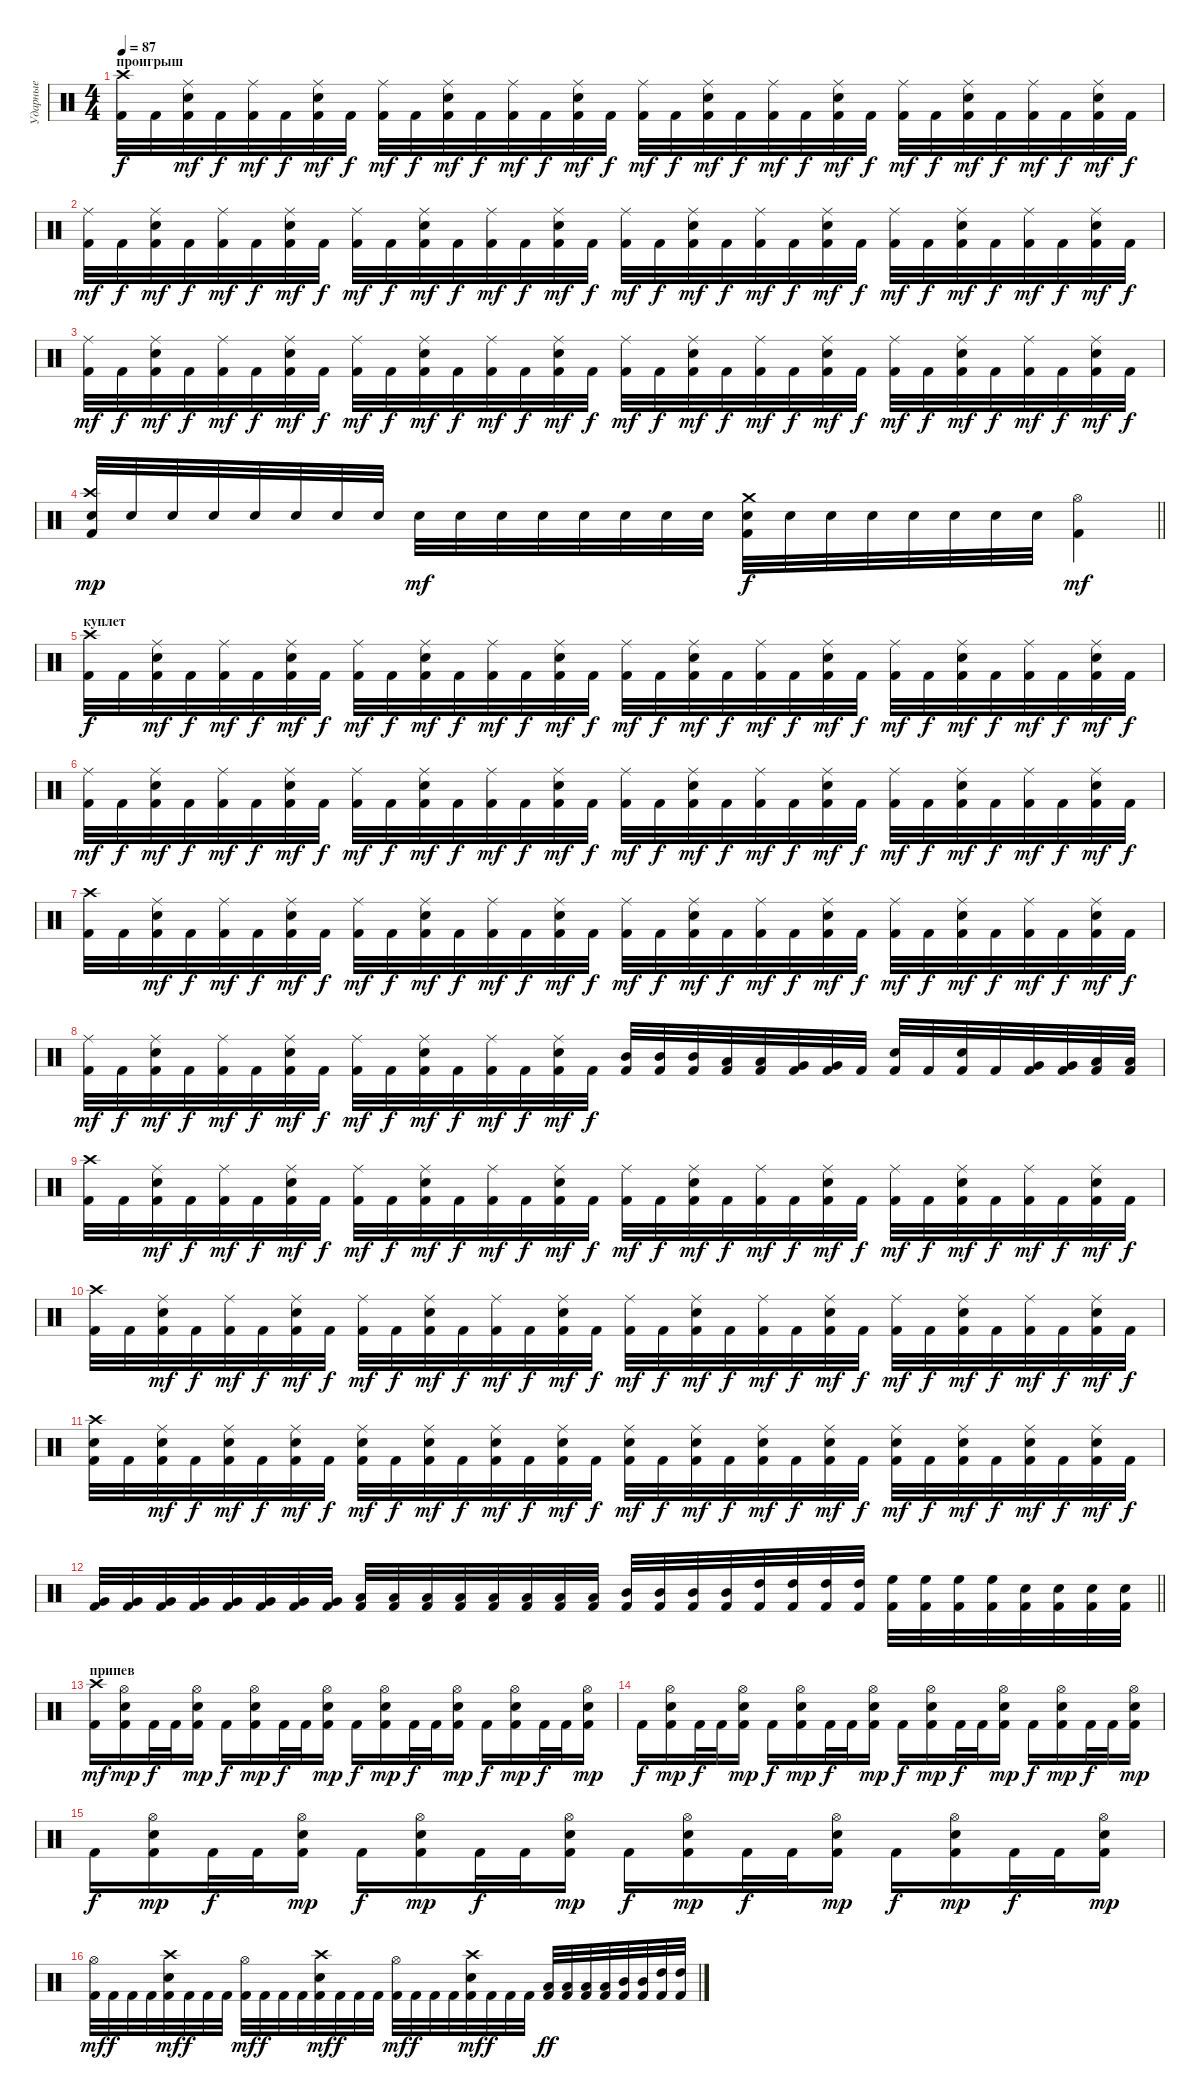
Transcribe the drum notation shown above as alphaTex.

\track ("Ударные" "Ударные") {instrument percussion}
\staff {score}
\articulation defaults
\ts (4 4)
\section ("" "проигрыш")
\tempo 87
\clef neutral
\ks c
("Kick (hit) 2" "Crash high (hit)").32{dy f} "Kick (hit) 2".32 ("Kick (hit) 2" "Electric Snare (hit)" "Ride (middle)").32{dy mf} "Kick (hit) 2".32{dy f} ("Kick (hit) 2" "Ride (middle)").32{dy mf} "Kick (hit) 2".32{dy f} ("Kick (hit) 2" "Electric Snare (hit)" "Ride (middle)").32{dy mf} "Kick (hit) 2".32{dy f} ("Kick (hit) 2" "Ride (middle)").32{dy mf} "Kick (hit) 2".32{dy f} ("Kick (hit) 2" "Electric Snare (hit)" "Ride (middle)").32{dy mf} "Kick (hit) 2".32{dy f} ("Kick (hit) 2" "Ride (middle)").32{dy mf} "Kick (hit) 2".32{dy f} ("Kick (hit) 2" "Electric Snare (hit)" "Ride (middle)").32{dy mf} "Kick (hit) 2".32{dy f} ("Kick (hit) 2" "Ride (middle)").32{dy mf} "Kick (hit) 2".32{dy f} ("Kick (hit) 2" "Electric Snare (hit)" "Ride (middle)").32{dy mf} "Kick (hit) 2".32{dy f} ("Kick (hit) 2" "Ride (middle)").32{dy mf} "Kick (hit) 2".32{dy f} ("Kick (hit) 2" "Electric Snare (hit)" "Ride (middle)").32{dy mf} "Kick (hit) 2".32{dy f} ("Kick (hit) 2" "Ride (middle)").32{dy mf} "Kick (hit) 2".32{dy f} ("Kick (hit) 2" "Electric Snare (hit)" "Ride (middle)").32{dy mf} "Kick (hit) 2".32{dy f} ("Kick (hit) 2" "Ride (middle)").32{dy mf} "Kick (hit) 2".32{dy f} ("Kick (hit) 2" "Electric Snare (hit)" "Ride (middle)").32{dy mf} "Kick (hit) 2".32{dy f} |
("Kick (hit) 2" "Ride (middle)").32{dy mf} "Kick (hit) 2".32{dy f} ("Kick (hit) 2" "Electric Snare (hit)" "Ride (middle)").32{dy mf} "Kick (hit) 2".32{dy f} ("Kick (hit) 2" "Ride (middle)").32{dy mf} "Kick (hit) 2".32{dy f} ("Kick (hit) 2" "Electric Snare (hit)" "Ride (middle)").32{dy mf} "Kick (hit) 2".32{dy f} ("Kick (hit) 2" "Ride (middle)").32{dy mf} "Kick (hit) 2".32{dy f} ("Kick (hit) 2" "Electric Snare (hit)" "Ride (middle)").32{dy mf} "Kick (hit) 2".32{dy f} ("Kick (hit) 2" "Ride (middle)").32{dy mf} "Kick (hit) 2".32{dy f} ("Kick (hit) 2" "Electric Snare (hit)" "Ride (middle)").32{dy mf} "Kick (hit) 2".32{dy f} ("Kick (hit) 2" "Ride (middle)").32{dy mf} "Kick (hit) 2".32{dy f} ("Kick (hit) 2" "Electric Snare (hit)" "Ride (middle)").32{dy mf} "Kick (hit) 2".32{dy f} ("Kick (hit) 2" "Ride (middle)").32{dy mf} "Kick (hit) 2".32{dy f} ("Kick (hit) 2" "Electric Snare (hit)" "Ride (middle)").32{dy mf} "Kick (hit) 2".32{dy f} ("Kick (hit) 2" "Ride (middle)").32{dy mf} "Kick (hit) 2".32{dy f} ("Kick (hit) 2" "Electric Snare (hit)" "Ride (middle)").32{dy mf} "Kick (hit) 2".32{dy f} ("Kick (hit) 2" "Ride (middle)").32{dy mf} "Kick (hit) 2".32{dy f} ("Kick (hit) 2" "Electric Snare (hit)" "Ride (middle)").32{dy mf} "Kick (hit) 2".32{dy f} |
("Kick (hit) 2" "Ride (middle)").32{dy mf} "Kick (hit) 2".32{dy f} ("Kick (hit) 2" "Electric Snare (hit)" "Ride (middle)").32{dy mf} "Kick (hit) 2".32{dy f} ("Kick (hit) 2" "Ride (middle)").32{dy mf} "Kick (hit) 2".32{dy f} ("Kick (hit) 2" "Electric Snare (hit)" "Ride (middle)").32{dy mf} "Kick (hit) 2".32{dy f} ("Kick (hit) 2" "Ride (middle)").32{dy mf} "Kick (hit) 2".32{dy f} ("Kick (hit) 2" "Electric Snare (hit)" "Ride (middle)").32{dy mf} "Kick (hit) 2".32{dy f} ("Kick (hit) 2" "Ride (middle)").32{dy mf} "Kick (hit) 2".32{dy f} ("Kick (hit) 2" "Electric Snare (hit)" "Ride (middle)").32{dy mf} "Kick (hit) 2".32{dy f} ("Kick (hit) 2" "Ride (middle)").32{dy mf} "Kick (hit) 2".32{dy f} ("Kick (hit) 2" "Electric Snare (hit)" "Ride (middle)").32{dy mf} "Kick (hit) 2".32{dy f} ("Kick (hit) 2" "Ride (middle)").32{dy mf} "Kick (hit) 2".32{dy f} ("Kick (hit) 2" "Electric Snare (hit)" "Ride (middle)").32{dy mf} "Kick (hit) 2".32{dy f} ("Kick (hit) 2" "Ride (middle)").32{dy mf} "Kick (hit) 2".32{dy f} ("Kick (hit) 2" "Electric Snare (hit)" "Ride (middle)").32{dy mf} "Kick (hit) 2".32{dy f} ("Kick (hit) 2" "Ride (middle)").32{dy mf} "Kick (hit) 2".32{dy f} ("Kick (hit) 2" "Electric Snare (hit)" "Ride (middle)").32{dy mf} "Kick (hit) 2".32{dy f} |
\barLineRight lightlight
("Kick (hit) 2" "Electric Snare (hit)" "Crash high (hit)").32{dy mp} "Electric Snare (hit)".32 "Electric Snare (hit)".32 "Electric Snare (hit)".32 "Electric Snare (hit)".32 "Electric Snare (hit)".32 "Electric Snare (hit)".32 "Electric Snare (hit)".32 "Electric Snare (hit)".32{dy mf} "Electric Snare (hit)".32 "Electric Snare (hit)".32 "Electric Snare (hit)".32 "Electric Snare (hit)".32 "Electric Snare (hit)".32 "Electric Snare (hit)".32 "Electric Snare (hit)".32 ("Kick (hit) 2" "Electric Snare (hit)" "Crash medium (hit)").32{dy f} "Electric Snare (hit)".32 "Electric Snare (hit)".32 "Electric Snare (hit)".32 "Electric Snare (hit)".32 "Electric Snare (hit)".32 "Electric Snare (hit)".32 "Electric Snare (hit)".32 ("Kick (hit) 2" "Hi-Hat (open)").4{dy mf} |
\section ("" "куплет")
("Kick (hit) 2" "Crash high (hit)").32{dy f} "Kick (hit) 2".32 ("Kick (hit) 2" "Electric Snare (hit)" "Ride (middle)").32{dy mf} "Kick (hit) 2".32{dy f} ("Kick (hit) 2" "Ride (middle)").32{dy mf} "Kick (hit) 2".32{dy f} ("Kick (hit) 2" "Electric Snare (hit)" "Ride (middle)").32{dy mf} "Kick (hit) 2".32{dy f} ("Kick (hit) 2" "Ride (middle)").32{dy mf} "Kick (hit) 2".32{dy f} ("Kick (hit) 2" "Electric Snare (hit)" "Ride (middle)").32{dy mf} "Kick (hit) 2".32{dy f} ("Kick (hit) 2" "Ride (middle)").32{dy mf} "Kick (hit) 2".32{dy f} ("Kick (hit) 2" "Electric Snare (hit)" "Ride (middle)").32{dy mf} "Kick (hit) 2".32{dy f} ("Kick (hit) 2" "Ride (middle)").32{dy mf} "Kick (hit) 2".32{dy f} ("Kick (hit) 2" "Electric Snare (hit)" "Ride (middle)").32{dy mf} "Kick (hit) 2".32{dy f} ("Kick (hit) 2" "Ride (middle)").32{dy mf} "Kick (hit) 2".32{dy f} ("Kick (hit) 2" "Electric Snare (hit)" "Ride (middle)").32{dy mf} "Kick (hit) 2".32{dy f} ("Kick (hit) 2" "Ride (middle)").32{dy mf} "Kick (hit) 2".32{dy f} ("Kick (hit) 2" "Electric Snare (hit)" "Ride (middle)").32{dy mf} "Kick (hit) 2".32{dy f} ("Kick (hit) 2" "Ride (middle)").32{dy mf} "Kick (hit) 2".32{dy f} ("Kick (hit) 2" "Electric Snare (hit)" "Ride (middle)").32{dy mf} "Kick (hit) 2".32{dy f} |
("Kick (hit) 2" "Ride (middle)").32{dy mf} "Kick (hit) 2".32{dy f} ("Kick (hit) 2" "Electric Snare (hit)" "Ride (middle)").32{dy mf} "Kick (hit) 2".32{dy f} ("Kick (hit) 2" "Ride (middle)").32{dy mf} "Kick (hit) 2".32{dy f} ("Kick (hit) 2" "Electric Snare (hit)" "Ride (middle)").32{dy mf} "Kick (hit) 2".32{dy f} ("Kick (hit) 2" "Ride (middle)").32{dy mf} "Kick (hit) 2".32{dy f} ("Kick (hit) 2" "Electric Snare (hit)" "Ride (middle)").32{dy mf} "Kick (hit) 2".32{dy f} ("Kick (hit) 2" "Ride (middle)").32{dy mf} "Kick (hit) 2".32{dy f} ("Kick (hit) 2" "Electric Snare (hit)" "Ride (middle)").32{dy mf} "Kick (hit) 2".32{dy f} ("Kick (hit) 2" "Ride (middle)").32{dy mf} "Kick (hit) 2".32{dy f} ("Kick (hit) 2" "Electric Snare (hit)" "Ride (middle)").32{dy mf} "Kick (hit) 2".32{dy f} ("Kick (hit) 2" "Ride (middle)").32{dy mf} "Kick (hit) 2".32{dy f} ("Kick (hit) 2" "Electric Snare (hit)" "Ride (middle)").32{dy mf} "Kick (hit) 2".32{dy f} ("Kick (hit) 2" "Ride (middle)").32{dy mf} "Kick (hit) 2".32{dy f} ("Kick (hit) 2" "Electric Snare (hit)" "Ride (middle)").32{dy mf} "Kick (hit) 2".32{dy f} ("Kick (hit) 2" "Ride (middle)").32{dy mf} "Kick (hit) 2".32{dy f} ("Kick (hit) 2" "Electric Snare (hit)" "Ride (middle)").32{dy mf} "Kick (hit) 2".32{dy f} |
("Kick (hit) 2" "Crash high (hit)").32 "Kick (hit) 2".32 ("Kick (hit) 2" "Electric Snare (hit)" "Ride (middle)").32{dy mf} "Kick (hit) 2".32{dy f} ("Kick (hit) 2" "Ride (middle)").32{dy mf} "Kick (hit) 2".32{dy f} ("Kick (hit) 2" "Electric Snare (hit)" "Ride (middle)").32{dy mf} "Kick (hit) 2".32{dy f} ("Kick (hit) 2" "Ride (middle)").32{dy mf} "Kick (hit) 2".32{dy f} ("Kick (hit) 2" "Electric Snare (hit)" "Ride (middle)").32{dy mf} "Kick (hit) 2".32{dy f} ("Kick (hit) 2" "Ride (middle)").32{dy mf} "Kick (hit) 2".32{dy f} ("Kick (hit) 2" "Electric Snare (hit)" "Ride (middle)").32{dy mf} "Kick (hit) 2".32{dy f} ("Kick (hit) 2" "Ride (middle)").32{dy mf} "Kick (hit) 2".32{dy f} ("Kick (hit) 2" "Electric Snare (hit)" "Ride (middle)").32{dy mf} "Kick (hit) 2".32{dy f} ("Kick (hit) 2" "Ride (middle)").32{dy mf} "Kick (hit) 2".32{dy f} ("Kick (hit) 2" "Electric Snare (hit)" "Ride (middle)").32{dy mf} "Kick (hit) 2".32{dy f} ("Kick (hit) 2" "Ride (middle)").32{dy mf} "Kick (hit) 2".32{dy f} ("Kick (hit) 2" "Electric Snare (hit)" "Ride (middle)").32{dy mf} "Kick (hit) 2".32{dy f} ("Kick (hit) 2" "Ride (middle)").32{dy mf} "Kick (hit) 2".32{dy f} ("Kick (hit) 2" "Electric Snare (hit)" "Ride (middle)").32{dy mf} "Kick (hit) 2".32{dy f} |
("Kick (hit) 2" "Ride (middle)").32{dy mf} "Kick (hit) 2".32{dy f} ("Kick (hit) 2" "Electric Snare (hit)" "Ride (middle)").32{dy mf} "Kick (hit) 2".32{dy f} ("Kick (hit) 2" "Ride (middle)").32{dy mf} "Kick (hit) 2".32{dy f} ("Kick (hit) 2" "Electric Snare (hit)" "Ride (middle)").32{dy mf} "Kick (hit) 2".32{dy f} ("Kick (hit) 2" "Ride (middle)").32{dy mf} "Kick (hit) 2".32{dy f} ("Kick (hit) 2" "Electric Snare (hit)" "Ride (middle)").32{dy mf} "Kick (hit) 2".32{dy f} ("Kick (hit) 2" "Ride (middle)").32{dy mf} "Kick (hit) 2".32{dy f} ("Kick (hit) 2" "Electric Snare (hit)" "Ride (middle)").32{dy mf} "Kick (hit) 2".32{dy f} ("Kick (hit) 2" "Mid Tom (hit)").32 ("Kick (hit) 2" "Mid Tom (hit)").32 ("Kick (hit) 2" "Mid Tom (hit)").32 ("Kick (hit) 2" "Low Tom (hit)").32 ("Kick (hit) 2" "Low Tom (hit)").32 ("Kick (hit) 2" "Very Low Tom (hit)").32 ("Kick (hit) 2" "Very Low Tom (hit)").32 "Kick (hit) 2".32 ("Kick (hit) 2" "Electric Snare (hit)").32 "Kick (hit) 2".32 ("Kick (hit) 2" "Electric Snare (hit)").32 "Kick (hit) 2".32 ("Kick (hit) 2" "Very Low Tom (hit)").32 ("Kick (hit) 2" "Very Low Tom (hit)").32 ("Kick (hit) 2" "Low Floor Tom (hit)").32 ("Kick (hit) 2" "Low Floor Tom (hit)").32 |
("Kick (hit) 2" "Crash high (hit)").32 "Kick (hit) 2".32 ("Kick (hit) 2" "Electric Snare (hit)" "Ride (middle)").32{dy mf} "Kick (hit) 2".32{dy f} ("Kick (hit) 2" "Ride (middle)").32{dy mf} "Kick (hit) 2".32{dy f} ("Kick (hit) 2" "Electric Snare (hit)" "Ride (middle)").32{dy mf} "Kick (hit) 2".32{dy f} ("Kick (hit) 2" "Ride (middle)").32{dy mf} "Kick (hit) 2".32{dy f} ("Kick (hit) 2" "Electric Snare (hit)" "Ride (middle)").32{dy mf} "Kick (hit) 2".32{dy f} ("Kick (hit) 2" "Ride (middle)").32{dy mf} "Kick (hit) 2".32{dy f} ("Kick (hit) 2" "Electric Snare (hit)" "Ride (middle)").32{dy mf} "Kick (hit) 2".32{dy f} ("Kick (hit) 2" "Ride (middle)").32{dy mf} "Kick (hit) 2".32{dy f} ("Kick (hit) 2" "Electric Snare (hit)" "Ride (middle)").32{dy mf} "Kick (hit) 2".32{dy f} ("Kick (hit) 2" "Ride (middle)").32{dy mf} "Kick (hit) 2".32{dy f} ("Kick (hit) 2" "Electric Snare (hit)" "Ride (middle)").32{dy mf} "Kick (hit) 2".32{dy f} ("Kick (hit) 2" "Ride (middle)").32{dy mf} "Kick (hit) 2".32{dy f} ("Kick (hit) 2" "Electric Snare (hit)" "Ride (middle)").32{dy mf} "Kick (hit) 2".32{dy f} ("Kick (hit) 2" "Ride (middle)").32{dy mf} "Kick (hit) 2".32{dy f} ("Kick (hit) 2" "Electric Snare (hit)" "Ride (middle)").32{dy mf} "Kick (hit) 2".32{dy f} |
("Kick (hit) 2" "Crash high (hit)").32 "Kick (hit) 2".32 ("Kick (hit) 2" "Electric Snare (hit)" "Ride (middle)").32{dy mf} "Kick (hit) 2".32{dy f} ("Kick (hit) 2" "Ride (middle)").32{dy mf} "Kick (hit) 2".32{dy f} ("Kick (hit) 2" "Electric Snare (hit)" "Ride (middle)").32{dy mf} "Kick (hit) 2".32{dy f} ("Kick (hit) 2" "Ride (middle)").32{dy mf} "Kick (hit) 2".32{dy f} ("Kick (hit) 2" "Electric Snare (hit)" "Ride (middle)").32{dy mf} "Kick (hit) 2".32{dy f} ("Kick (hit) 2" "Ride (middle)").32{dy mf} "Kick (hit) 2".32{dy f} ("Kick (hit) 2" "Electric Snare (hit)" "Ride (middle)").32{dy mf} "Kick (hit) 2".32{dy f} ("Kick (hit) 2" "Ride (middle)").32{dy mf} "Kick (hit) 2".32{dy f} ("Kick (hit) 2" "Electric Snare (hit)" "Ride (middle)").32{dy mf} "Kick (hit) 2".32{dy f} ("Kick (hit) 2" "Ride (middle)").32{dy mf} "Kick (hit) 2".32{dy f} ("Kick (hit) 2" "Electric Snare (hit)" "Ride (middle)").32{dy mf} "Kick (hit) 2".32{dy f} ("Kick (hit) 2" "Ride (middle)").32{dy mf} "Kick (hit) 2".32{dy f} ("Kick (hit) 2" "Electric Snare (hit)" "Ride (middle)").32{dy mf} "Kick (hit) 2".32{dy f} ("Kick (hit) 2" "Ride (middle)").32{dy mf} "Kick (hit) 2".32{dy f} ("Kick (hit) 2" "Electric Snare (hit)" "Ride (middle)").32{dy mf} "Kick (hit) 2".32{dy f} |
("Kick (hit) 2" "Electric Snare (hit)" "Crash high (hit)").32 "Kick (hit) 2".32 ("Kick (hit) 2" "Electric Snare (hit)" "Ride (middle)").32{dy mf} "Kick (hit) 2".32{dy f} ("Kick (hit) 2" "Electric Snare (hit)" "Ride (middle)").32{dy mf} "Kick (hit) 2".32{dy f} ("Kick (hit) 2" "Electric Snare (hit)" "Ride (middle)").32{dy mf} "Kick (hit) 2".32{dy f} ("Kick (hit) 2" "Electric Snare (hit)" "Ride (middle)").32{dy mf} "Kick (hit) 2".32{dy f} ("Kick (hit) 2" "Electric Snare (hit)" "Ride (middle)").32{dy mf} "Kick (hit) 2".32{dy f} ("Kick (hit) 2" "Electric Snare (hit)" "Ride (middle)").32{dy mf} "Kick (hit) 2".32{dy f} ("Kick (hit) 2" "Electric Snare (hit)" "Ride (middle)").32{dy mf} "Kick (hit) 2".32{dy f} ("Kick (hit) 2" "Electric Snare (hit)" "Ride (middle)").32{dy mf} "Kick (hit) 2".32{dy f} ("Kick (hit) 2" "Electric Snare (hit)" "Ride (middle)").32{dy mf} "Kick (hit) 2".32{dy f} ("Kick (hit) 2" "Electric Snare (hit)" "Ride (middle)").32{dy mf} "Kick (hit) 2".32{dy f} ("Kick (hit) 2" "Electric Snare (hit)" "Ride (middle)").32{dy mf} "Kick (hit) 2".32{dy f} ("Kick (hit) 2" "Electric Snare (hit)" "Ride (middle)").32{dy mf} "Kick (hit) 2".32{dy f} ("Kick (hit) 2" "Electric Snare (hit)" "Ride (middle)").32{dy mf} "Kick (hit) 2".32{dy f} ("Kick (hit) 2" "Electric Snare (hit)" "Ride (middle)").32{dy mf} "Kick (hit) 2".32{dy f} ("Kick (hit) 2" "Electric Snare (hit)" "Ride (middle)").32{dy mf} "Kick (hit) 2".32{dy f} |
\barLineRight lightlight
("Kick (hit) 2" "Very Low Tom (hit)").32 ("Kick (hit) 2" "Very Low Tom (hit)").32 ("Kick (hit) 2" "Very Low Tom (hit)").32 ("Kick (hit) 2" "Very Low Tom (hit)").32 ("Kick (hit) 2" "Very Low Tom (hit)").32 ("Kick (hit) 2" "Very Low Tom (hit)").32 ("Kick (hit) 2" "Very Low Tom (hit)").32 ("Kick (hit) 2" "Very Low Tom (hit)").32 ("Kick (hit) 2" "Low Tom (hit)").32 ("Kick (hit) 2" "Low Tom (hit)").32 ("Kick (hit) 2" "Low Tom (hit)").32 ("Kick (hit) 2" "Low Tom (hit)").32 ("Kick (hit) 2" "Low Tom (hit)").32 ("Kick (hit) 2" "Low Tom (hit)").32 ("Kick (hit) 2" "Low Tom (hit)").32 ("Kick (hit) 2" "Low Tom (hit)").32 ("Kick (hit) 2" "Mid Tom (hit)").32 ("Kick (hit) 2" "Mid Tom (hit)").32 ("Kick (hit) 2" "Mid Tom (hit)").32 ("Kick (hit) 2" "Mid Tom (hit)").32 ("Kick (hit) 2" "High Tom (hit)").32 ("Kick (hit) 2" "High Tom (hit)").32 ("Kick (hit) 2" "High Tom (hit)").32 ("Kick (hit) 2" "High Tom (hit)").32 ("Kick (hit) 2" "High Floor Tom (hit)").32 ("Kick (hit) 2" "High Floor Tom (hit)").32 ("Kick (hit) 2" "High Floor Tom (hit)").32 ("Kick (hit) 2" "High Floor Tom (hit)").32 ("Kick (hit) 2" "Electric Snare (hit)").32 ("Kick (hit) 2" "Electric Snare (hit)").32 ("Kick (hit) 2" "Electric Snare (hit)").32 ("Kick (hit) 2" "Electric Snare (hit)").32 |
\section ("" "припев")
("Kick (hit) 2" "Crash high (hit)").16{dy mf} ("Kick (hit) 2" "Electric Snare (hit)" "Hi-Hat (open)").16{dy mp} "Kick (hit) 2".32{dy f} "Kick (hit) 2".32 ("Kick (hit) 2" "Electric Snare (hit)" "Hi-Hat (open)").16{dy mp} "Kick (hit) 2".16{dy f} ("Kick (hit) 2" "Electric Snare (hit)" "Hi-Hat (open)").16{dy mp} "Kick (hit) 2".32{dy f} "Kick (hit) 2".32 ("Kick (hit) 2" "Electric Snare (hit)" "Hi-Hat (open)").16{dy mp} "Kick (hit) 2".16{dy f} ("Kick (hit) 2" "Electric Snare (hit)" "Hi-Hat (open)").16{dy mp} "Kick (hit) 2".32{dy f} "Kick (hit) 2".32 ("Kick (hit) 2" "Electric Snare (hit)" "Hi-Hat (open)").16{dy mp} "Kick (hit) 2".16{dy f} ("Kick (hit) 2" "Electric Snare (hit)" "Hi-Hat (open)").16{dy mp} "Kick (hit) 2".32{dy f} "Kick (hit) 2".32 ("Kick (hit) 2" "Electric Snare (hit)" "Hi-Hat (open)").16{dy mp} |
"Kick (hit) 2".16{dy f} ("Kick (hit) 2" "Electric Snare (hit)" "Hi-Hat (open)").16{dy mp} "Kick (hit) 2".32{dy f} "Kick (hit) 2".32 ("Kick (hit) 2" "Electric Snare (hit)" "Hi-Hat (open)").16{dy mp} "Kick (hit) 2".16{dy f} ("Kick (hit) 2" "Electric Snare (hit)" "Hi-Hat (open)").16{dy mp} "Kick (hit) 2".32{dy f} "Kick (hit) 2".32 ("Kick (hit) 2" "Electric Snare (hit)" "Hi-Hat (open)").16{dy mp} "Kick (hit) 2".16{dy f} ("Kick (hit) 2" "Electric Snare (hit)" "Hi-Hat (open)").16{dy mp} "Kick (hit) 2".32{dy f} "Kick (hit) 2".32 ("Kick (hit) 2" "Electric Snare (hit)" "Hi-Hat (open)").16{dy mp} "Kick (hit) 2".16{dy f} ("Kick (hit) 2" "Electric Snare (hit)" "Hi-Hat (open)").16{dy mp} "Kick (hit) 2".32{dy f} "Kick (hit) 2".32 ("Kick (hit) 2" "Electric Snare (hit)" "Hi-Hat (open)").16{dy mp} |
"Kick (hit) 2".16{dy f} ("Kick (hit) 2" "Electric Snare (hit)" "Hi-Hat (open)").16{dy mp} "Kick (hit) 2".32{dy f} "Kick (hit) 2".32 ("Kick (hit) 2" "Electric Snare (hit)" "Hi-Hat (open)").16{dy mp} "Kick (hit) 2".16{dy f} ("Kick (hit) 2" "Electric Snare (hit)" "Hi-Hat (open)").16{dy mp} "Kick (hit) 2".32{dy f} "Kick (hit) 2".32 ("Kick (hit) 2" "Electric Snare (hit)" "Hi-Hat (open)").16{dy mp} "Kick (hit) 2".16{dy f} ("Kick (hit) 2" "Electric Snare (hit)" "Hi-Hat (open)").16{dy mp} "Kick (hit) 2".32{dy f} "Kick (hit) 2".32 ("Kick (hit) 2" "Electric Snare (hit)" "Hi-Hat (open)").16{dy mp} "Kick (hit) 2".16{dy f} ("Kick (hit) 2" "Electric Snare (hit)" "Hi-Hat (open)").16{dy mp} "Kick (hit) 2".32{dy f} "Kick (hit) 2".32 ("Kick (hit) 2" "Electric Snare (hit)" "Hi-Hat (open)").16{dy mp} |
("Kick (hit) 2" "Hi-Hat (open)").32{dy mf} "Kick (hit) 2".32{dy f} "Kick (hit) 2".32 "Kick (hit) 2".32 ("Kick (hit) 2" "Electric Snare (hit)" "Crash high (hit)").32{dy mf} "Kick (hit) 2".32{dy f} "Kick (hit) 2".32 "Kick (hit) 2".32 ("Kick (hit) 2" "Hi-Hat (open)").32{dy mf} "Kick (hit) 2".32{dy f} "Kick (hit) 2".32 "Kick (hit) 2".32 ("Kick (hit) 2" "Electric Snare (hit)" "Crash high (hit)").32{dy mf} "Kick (hit) 2".32{dy f} "Kick (hit) 2".32 "Kick (hit) 2".32 ("Kick (hit) 2" "Hi-Hat (open)").32{dy mf} "Kick (hit) 2".32{dy f} "Kick (hit) 2".32 "Kick (hit) 2".32 ("Kick (hit) 2" "Electric Snare (hit)" "Crash high (hit)").32{dy mf} "Kick (hit) 2".32{dy f} "Kick (hit) 2".32 "Kick (hit) 2".32 ("Kick (hit) 2" "Low Tom (hit)").32{dy ff} ("Kick (hit) 2" "Low Tom (hit)").32 ("Kick (hit) 2" "Low Tom (hit)").32 ("Kick (hit) 2" "Low Tom (hit)").32 ("Kick (hit) 2" "Mid Tom (hit)").32 ("Kick (hit) 2" "Mid Tom (hit)").32 ("Kick (hit) 2" "High Tom (hit)").32 ("Kick (hit) 2" "High Tom (hit)").32
